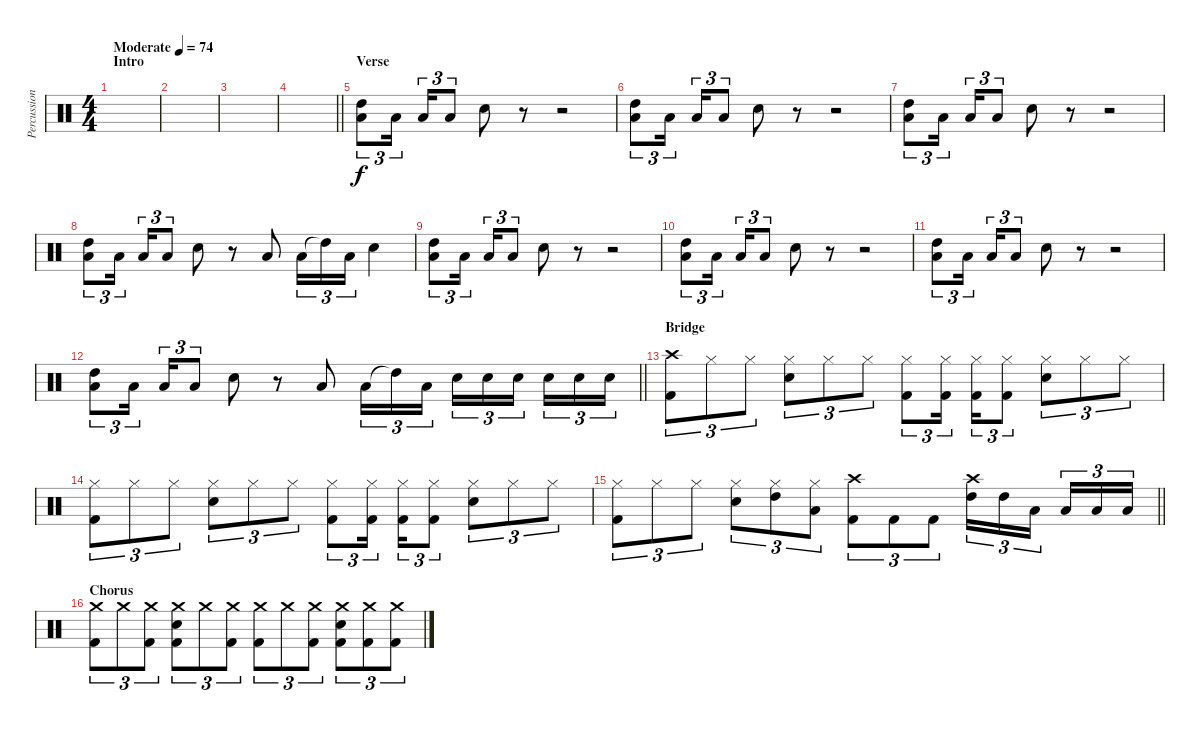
\track ("Percussioni" "Percussion") {instrument percussion}
\staff {score}
\articulation defaults
\ts (4 4)
\section ("" "Intro")
\tempo (74 "Moderate")
\clef neutral
\ks c
|
|
|
\barLineRight lightlight
|
\section ("" "Verse")
("High Tom (hit)" "Low Tom (hit)").8{tu (3 2)} "Low Tom (hit)".16{tu (3 2) beam splitsecondary} "Low Tom (hit)".16{tu (3 2)} "Low Floor Tom (hit)".8{tu (3 2)} "Snare (hit) 2".8 r.8 r.2 |
("High Tom (hit)" "Low Tom (hit)").8{tu (3 2)} "Low Tom (hit)".16{tu (3 2) beam splitsecondary} "Low Tom (hit)".16{tu (3 2)} "Low Floor Tom (hit)".8{tu (3 2)} "Snare (hit) 2".8 r.8 r.2 |
("High Tom (hit)" "Low Tom (hit)").8{tu (3 2)} "Low Tom (hit)".16{tu (3 2) beam splitsecondary} "Low Tom (hit)".16{tu (3 2)} "Low Floor Tom (hit)".8{tu (3 2)} "Snare (hit) 2".8 r.8 r.2 |
("High Tom (hit)" "Low Tom (hit)").8{tu (3 2)} "Low Tom (hit)".16{tu (3 2) beam splitsecondary} "Low Tom (hit)".16{tu (3 2)} "Low Floor Tom (hit)".8{tu (3 2)} "Snare (hit) 2".8 r.8 "Low Tom (hit)".8 "Low Tom (hit)".16{tu (3 2)} "High Tom (hit)"{t}.16{tu (3 2)} "Low Floor Tom (hit)".16{tu (3 2)} "Snare (hit) 2".4 |
("High Tom (hit)" "Low Tom (hit)").8{tu (3 2)} "Low Tom (hit)".16{tu (3 2) beam splitsecondary} "Low Tom (hit)".16{tu (3 2)} "Low Floor Tom (hit)".8{tu (3 2)} "Snare (hit) 2".8 r.8 r.2 |
("High Tom (hit)" "Low Tom (hit)").8{tu (3 2)} "Low Tom (hit)".16{tu (3 2) beam splitsecondary} "Low Tom (hit)".16{tu (3 2)} "Low Floor Tom (hit)".8{tu (3 2)} "Snare (hit) 2".8 r.8 r.2 |
("High Tom (hit)" "Low Tom (hit)").8{tu (3 2)} "Low Tom (hit)".16{tu (3 2) beam splitsecondary} "Low Tom (hit)".16{tu (3 2)} "Low Floor Tom (hit)".8{tu (3 2)} "Snare (hit) 2".8 r.8 r.2 |
\barLineRight lightlight
("High Tom (hit)" "Low Tom (hit)").8{tu (3 2)} "Low Tom (hit)".16{tu (3 2) beam splitsecondary} "Low Tom (hit)".16{tu (3 2)} "Low Floor Tom (hit)".8{tu (3 2)} "Snare (hit) 2".8 r.8 "Low Tom (hit)".8 "Low Tom (hit)".16{tu (3 2)} "High Tom (hit)"{t}.16{tu (3 2)} "Low Floor Tom (hit)".16{tu (3 2)} "Snare (hit) 2".16{tu (3 2)} "Snare (hit) 2".16{tu (3 2)} "Snare (hit) 2".16{tu (3 2) beam splitsecondary} "Snare (hit) 2".16{tu (3 2)} "Snare (hit) 2".16{tu (3 2)} "Snare (hit) 2".16{tu (3 2)} |
\section ("" "Bridge")
("Crash high (hit)" "Kick (hit) 2").8{tu (3 2)} "Hi-Hat (closed)".8{tu (3 2)} "Hi-Hat (closed)".8{tu (3 2)} ("Hi-Hat (closed)" "Snare (hit) 2").8{tu (3 2)} "Hi-Hat (closed)".8{tu (3 2)} "Hi-Hat (closed)".8{tu (3 2)} ("Hi-Hat (closed)" "Kick (hit) 2").8{tu (3 2)} ("Hi-Hat (closed)" "Kick (hit) 2").16{tu (3 2) beam splitsecondary} ("Hi-Hat (closed)" "Kick (hit) 2").16{tu (3 2)} ("Hi-Hat (closed)" "Kick (hit) 2").8{tu (3 2)} ("Hi-Hat (closed)" "Snare (hit) 2").8{tu (3 2)} "Hi-Hat (closed)".8{tu (3 2)} "Hi-Hat (closed)".8{tu (3 2)} |
("Hi-Hat (closed)" "Kick (hit) 2").8{tu (3 2)} "Hi-Hat (closed)".8{tu (3 2)} "Hi-Hat (closed)".8{tu (3 2)} ("Hi-Hat (closed)" "Snare (hit) 2").8{tu (3 2)} "Hi-Hat (closed)".8{tu (3 2)} "Hi-Hat (closed)".8{tu (3 2)} ("Hi-Hat (closed)" "Kick (hit) 2").8{tu (3 2)} ("Hi-Hat (closed)" "Kick (hit) 2").16{tu (3 2) beam splitsecondary} ("Hi-Hat (closed)" "Kick (hit) 2").16{tu (3 2)} ("Hi-Hat (closed)" "Kick (hit) 2").8{tu (3 2)} ("Hi-Hat (closed)" "Snare (hit) 2").8{tu (3 2)} "Hi-Hat (closed)".8{tu (3 2)} "Hi-Hat (closed)".8{tu (3 2)} |
\barLineRight lightlight
("Hi-Hat (closed)" "Kick (hit) 2").8{tu (3 2)} "Hi-Hat (closed)".8{tu (3 2)} "Hi-Hat (closed)".8{tu (3 2)} ("Hi-Hat (closed)" "Snare (hit) 2").8{tu (3 2)} ("Hi-Hat (closed)" "High Tom (hit)").8{tu (3 2)} ("Hi-Hat (closed)" "Low Tom (hit)").8{tu (3 2)} ("Crash high (hit)" "Kick (hit) 2").8{tu (3 2)} "Kick (hit) 2".8{tu (3 2)} "Kick (hit) 2".8{tu (3 2)} ("Crash high (hit)" "High Tom (hit)").16{tu (3 2)} "High Tom (hit)".16{tu (3 2)} "Low Tom (hit)".16{tu (3 2) beam splitsecondary} "Low Tom (hit)".16{tu (3 2)} "Low Floor Tom (hit)".16{tu (3 2)} "Low Floor Tom (hit)".16{tu (3 2)} |
\section ("" "Chorus")
("Crash medium (hit)" "Kick (hit) 2").8{tu (3 2)} "Crash medium (hit)".8{tu (3 2)} ("Crash medium (hit)" "Kick (hit) 2").8{tu (3 2)} ("Crash medium (hit)" "Snare (hit) 2" "Kick (hit) 2").8{tu (3 2)} "Crash medium (hit)".8{tu (3 2)} ("Crash medium (hit)" "Kick (hit) 2").8{tu (3 2)} ("Crash medium (hit)" "Kick (hit) 2").8{tu (3 2)} "Crash medium (hit)".8{tu (3 2)} ("Crash medium (hit)" "Kick (hit) 2").8{tu (3 2)} ("Crash medium (hit)" "Snare (hit) 2" "Kick (hit) 2").8{tu (3 2)} ("Crash medium (hit)" "Kick (hit) 2").8{tu (3 2)} ("Crash medium (hit)" "Kick (hit) 2").8{tu (3 2)}
